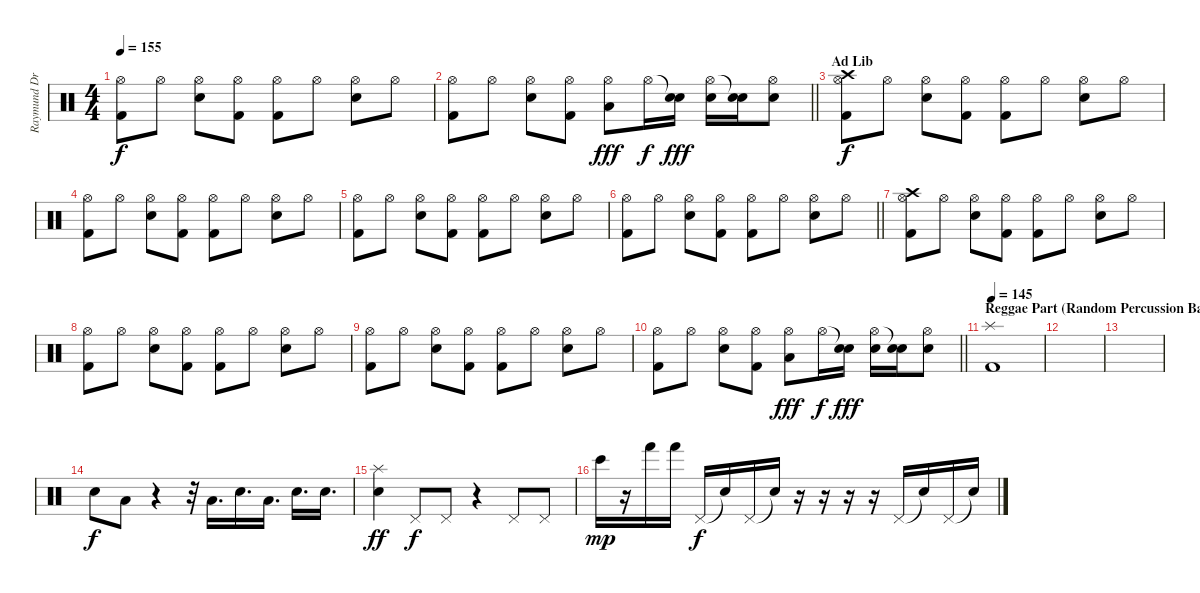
\track ("Raymund Drums" "Raymund Dr") {instrument percussion}
\staff {score}
\articulation defaults
\ts (4 4)
\tempo 155
\clef neutral
\ks c
("Hi-Hat (open)" "Kick (hit) 2").8{dy f} "Hi-Hat (open)".8 ("Hi-Hat (open)" "Snare (hit) 2").8 ("Hi-Hat (open)" "Kick (hit) 2").8 ("Hi-Hat (open)" "Kick (hit) 2").8 "Hi-Hat (open)".8 ("Hi-Hat (open)" "Snare (hit) 2").8 "Hi-Hat (open)".8 |
\barLineRight lightlight
("Hi-Hat (open)" "Kick (hit) 2").8 "Hi-Hat (open)".8 ("Hi-Hat (open)" "Snare (hit) 2").8 ("Hi-Hat (open)" "Kick (hit) 2").8 ("Hi-Hat (open)" "Low Tom (hit)").8{dy fff} "Hi-Hat (open)".16{dy f} ("Snare (hit)"{t} "Snare (hit) 2").16{dy fff} ("Hi-Hat (open)" "Snare (hit) 2").16 ("Snare (hit)"{t} "Snare (hit) 2").16 ("Hi-Hat (open)" "Snare (hit) 2").8 |
\section ("" "Ad Lib")
("Hi-Hat (open)" "Kick (hit) 2" "Crash high (hit)").8{dy f} "Hi-Hat (open)".8 ("Hi-Hat (open)" "Snare (hit) 2").8 ("Hi-Hat (open)" "Kick (hit) 2").8 ("Hi-Hat (open)" "Kick (hit) 2").8 "Hi-Hat (open)".8 ("Hi-Hat (open)" "Snare (hit) 2").8 "Hi-Hat (open)".8 |
("Hi-Hat (open)" "Kick (hit) 2").8 "Hi-Hat (open)".8 ("Hi-Hat (open)" "Snare (hit) 2").8 ("Hi-Hat (open)" "Kick (hit) 2").8 ("Hi-Hat (open)" "Kick (hit) 2").8 "Hi-Hat (open)".8 ("Hi-Hat (open)" "Snare (hit) 2").8 "Hi-Hat (open)".8 |
("Hi-Hat (open)" "Kick (hit) 2").8 "Hi-Hat (open)".8 ("Hi-Hat (open)" "Snare (hit) 2").8 ("Hi-Hat (open)" "Kick (hit) 2").8 ("Hi-Hat (open)" "Kick (hit) 2").8 "Hi-Hat (open)".8 ("Hi-Hat (open)" "Snare (hit) 2").8 "Hi-Hat (open)".8 |
\barLineRight lightlight
("Hi-Hat (open)" "Kick (hit) 2").8 "Hi-Hat (open)".8 ("Hi-Hat (open)" "Snare (hit) 2").8 ("Hi-Hat (open)" "Kick (hit) 2").8 ("Hi-Hat (open)" "Kick (hit) 2").8 "Hi-Hat (open)".8 ("Hi-Hat (open)" "Snare (hit) 2").8 "Hi-Hat (open)".8 |
("Hi-Hat (open)" "Kick (hit) 2" "Crash high (hit)").8 "Hi-Hat (open)".8 ("Hi-Hat (open)" "Snare (hit) 2").8 ("Hi-Hat (open)" "Kick (hit) 2").8 ("Hi-Hat (open)" "Kick (hit) 2").8 "Hi-Hat (open)".8 ("Hi-Hat (open)" "Snare (hit) 2").8 "Hi-Hat (open)".8 |
("Hi-Hat (open)" "Kick (hit) 2").8 "Hi-Hat (open)".8 ("Hi-Hat (open)" "Snare (hit) 2").8 ("Hi-Hat (open)" "Kick (hit) 2").8 ("Hi-Hat (open)" "Kick (hit) 2").8 "Hi-Hat (open)".8 ("Hi-Hat (open)" "Snare (hit) 2").8 "Hi-Hat (open)".8 |
("Hi-Hat (open)" "Kick (hit) 2").8 "Hi-Hat (open)".8 ("Hi-Hat (open)" "Snare (hit) 2").8 ("Hi-Hat (open)" "Kick (hit) 2").8 ("Hi-Hat (open)" "Kick (hit) 2").8 "Hi-Hat (open)".8 ("Hi-Hat (open)" "Snare (hit) 2").8 "Hi-Hat (open)".8 |
\barLineRight lightlight
("Hi-Hat (open)" "Kick (hit) 2").8 "Hi-Hat (open)".8 ("Hi-Hat (open)" "Snare (hit) 2").8 ("Hi-Hat (open)" "Kick (hit) 2").8 ("Hi-Hat (open)" "Low Tom (hit)").8{dy fff} "Hi-Hat (open)".16{dy f} ("Snare (hit)"{t} "Snare (hit) 2").16{dy fff} ("Hi-Hat (open)" "Snare (hit) 2").16 ("Snare (hit)"{t} "Snare (hit) 2").16 ("Hi-Hat (open)" "Snare (hit) 2").8 |
\section ("" "Reggae Part (Random Percussion Baby)")
\tempo 145
("Splash (hit)" "Kick (hit) 2").1 |
|
|
"Snare (hit) 2".8{dy f} "Low Tom (hit)".8 r.4 r.32 "Low Tom (hit)".16{d} "Snare (hit) 2".16{d} "Low Tom (hit)".16{d} "Snare (hit) 2".16{d} "Snare (hit) 2".16{d} |
("Splash (hit)" "Snare (hit) 2").4{dy ff} "Pedal Hi-Hat (hit)".8{dy f} "Pedal Hi-Hat (hit)".8 r.4 "Pedal Hi-Hat (hit)".8 "Pedal Hi-Hat (hit)".8 |
"Bongo High (hit)".16{dy mp} r.16 "Hand (hit)".16 "Hand (hit)".16 "Pedal Hi-Hat (hit)".16{dy f} "Snare (hit)"{t}.16 "Pedal Hi-Hat (hit)".16 "Snare (hit)"{t}.16 r.16 r.16 r.16 r.16 "Pedal Hi-Hat (hit)".16 "Snare (hit)"{t}.16 "Pedal Hi-Hat (hit)".16 "Snare (hit)"{t}.16
